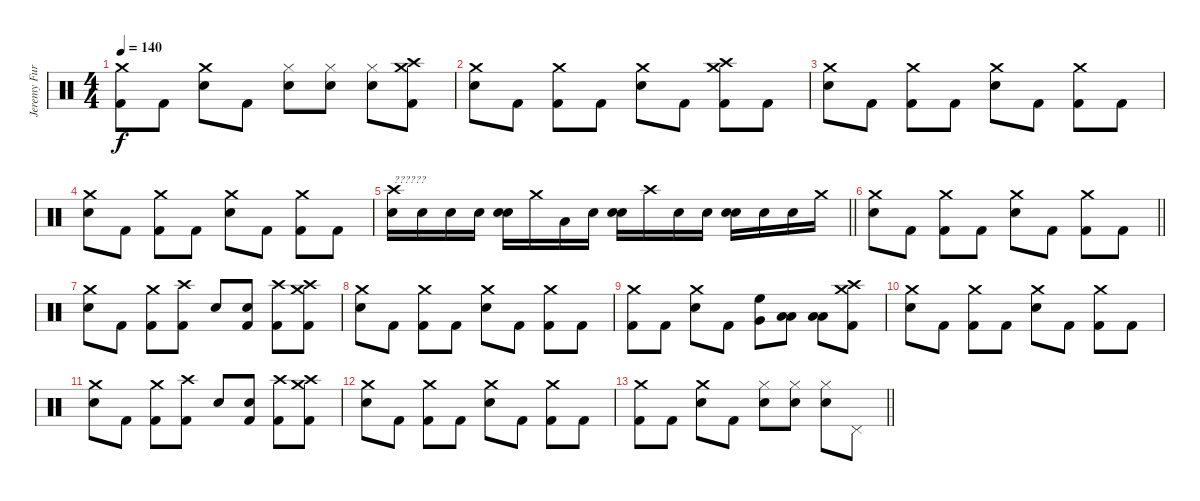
\track ("Jeremy Furstenfeld" "Jeremy Fur") {instrument percussion}
\staff {score}
\articulation defaults
\ts (4 4)
\tempo 140
\clef neutral
\ks c
("Crash medium (hit)" "Kick (hit) 2").8{dy f} "Kick (hit) 2".8 ("Crash medium (hit)" "Snare (hit) 2").8 "Kick (hit) 2".8 ("Hi-Hat (closed)" "Snare (hit) 2").8 ("Hi-Hat (closed)" "Snare (hit) 2").8 ("Hi-Hat (closed)" "Snare (hit) 2").8 ("Crash medium (hit)" "Crash high (hit)" "Kick (hit) 2").8 |
("Crash medium (hit)" "Snare (hit) 2").8 "Kick (hit) 2".8 ("Crash medium (hit)" "Kick (hit) 2").8 "Kick (hit) 2".8 ("Crash medium (hit)" "Snare (hit) 2").8 "Kick (hit) 2".8 ("Crash medium (hit)" "Crash high (hit)" "Kick (hit) 2").8 "Kick (hit) 2".8 |
("Crash medium (hit)" "Snare (hit) 2").8 "Kick (hit) 2".8 ("Crash medium (hit)" "Kick (hit) 2").8 "Kick (hit) 2".8 ("Crash medium (hit)" "Snare (hit) 2").8 "Kick (hit) 2".8 ("Crash medium (hit)" "Kick (hit) 2").8 "Kick (hit) 2".8 |
("Crash medium (hit)" "Snare (hit) 2").8 "Kick (hit) 2".8 ("Crash medium (hit)" "Kick (hit) 2").8 "Kick (hit) 2".8 ("Crash medium (hit)" "Snare (hit) 2").8 "Kick (hit) 2".8 ("Crash medium (hit)" "Kick (hit) 2").8 "Kick (hit) 2".8 |
\barLineRight lightlight
("Crash high (hit)" "Snare (hit) 2").16{txt "??????"} "Snare (hit) 2".16 "Snare (hit) 2".16 "Snare (hit) 2".16 ("Snare (hit) 2" "Snare (hit) 2").16 "Crash medium (hit)".16 "Low Tom (hit)".16 "Snare (hit) 2".16 ("Snare (hit) 2" "Snare (hit) 2").16 "Crash high (hit)".16 "Snare (hit) 2".16 "Snare (hit) 2".16 ("Snare (hit) 2" "Snare (hit) 2").16 "Snare (hit) 2".16 "Snare (hit) 2".16 "Crash medium (hit)".16 |
\barLineRight lightlight
("Crash medium (hit)" "Snare (hit) 2").8 "Kick (hit) 2".8 ("Crash medium (hit)" "Kick (hit) 2").8 "Kick (hit) 2".8 ("Crash medium (hit)" "Snare (hit) 2").8 "Kick (hit) 2".8 ("Crash medium (hit)" "Kick (hit) 2").8 "Kick (hit) 2".8 |
("Crash medium (hit)" "Snare (hit) 2").8 "Kick (hit) 2".8 ("Crash medium (hit)" "Kick (hit) 2").8 ("Crash high (hit)" "Kick (hit) 2").8 "Snare (hit) 2".8 ("Snare (hit) 2" "Kick (hit) 2").8 ("Crash high (hit)" "Kick (hit) 2").8 ("Crash medium (hit)" "Crash high (hit)" "Kick (hit) 2").8 |
("Crash medium (hit)" "Snare (hit) 2").8 "Kick (hit) 2".8 ("Crash medium (hit)" "Kick (hit) 2").8 "Kick (hit) 2".8 ("Crash medium (hit)" "Snare (hit) 2").8 "Kick (hit) 2".8 ("Crash medium (hit)" "Kick (hit) 2").8 "Kick (hit) 2".8 |
("Crash medium (hit)" "Kick (hit) 2").8 "Kick (hit) 2".8 ("Crash medium (hit)" "Snare (hit) 2").8 "Kick (hit) 2".8 ("High Floor Tom (hit)" "Very Low Tom (hit)").8 ("Low Tom (hit)" "Low Floor Tom (hit)").8 ("Low Tom (hit)" "Low Floor Tom (hit)").8 ("Crash medium (hit)" "Crash high (hit)" "Kick (hit) 2").8 |
("Crash medium (hit)" "Snare (hit) 2").8 "Kick (hit) 2".8 ("Crash medium (hit)" "Kick (hit) 2").8 "Kick (hit) 2".8 ("Crash medium (hit)" "Snare (hit) 2").8 "Kick (hit) 2".8 ("Crash medium (hit)" "Kick (hit) 2").8 "Kick (hit) 2".8 |
("Crash medium (hit)" "Snare (hit) 2").8 "Kick (hit) 2".8 ("Crash medium (hit)" "Kick (hit) 2").8 ("Crash high (hit)" "Kick (hit) 2").8 "Snare (hit) 2".8 ("Snare (hit) 2" "Kick (hit) 2").8 ("Crash high (hit)" "Kick (hit) 2").8 ("Crash medium (hit)" "Crash high (hit)" "Kick (hit) 2").8 |
("Crash medium (hit)" "Snare (hit) 2").8 "Kick (hit) 2".8 ("Crash medium (hit)" "Kick (hit) 2").8 "Kick (hit) 2".8 ("Crash medium (hit)" "Snare (hit) 2").8 "Kick (hit) 2".8 ("Crash medium (hit)" "Kick (hit) 2").8 "Kick (hit) 2".8 |
\barLineRight lightlight
("Crash medium (hit)" "Kick (hit) 2").8 "Kick (hit) 2".8 ("Crash medium (hit)" "Snare (hit) 2").8 "Kick (hit) 2".8 ("Hi-Hat (closed)" "Snare (hit) 2").8 ("Hi-Hat (closed)" "Snare (hit) 2").8 ("Hi-Hat (closed)" "Snare (hit) 2").8 "Pedal Hi-Hat (hit)".8
